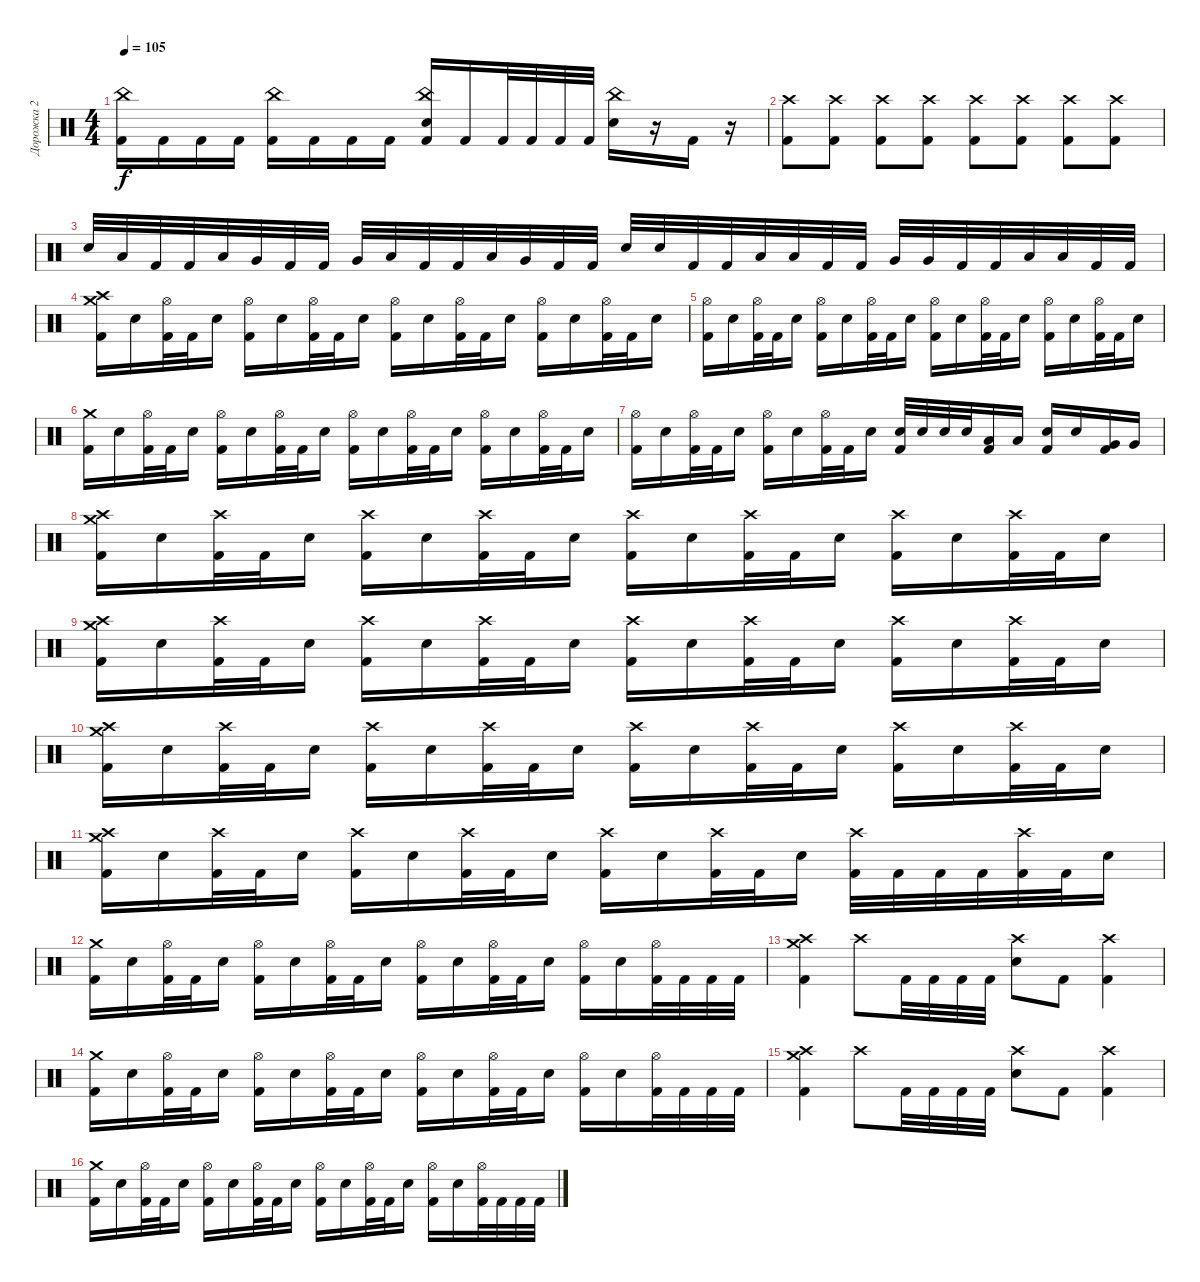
\track ("Дорожка 2" "Дорожка 2") {instrument percussion}
\staff {score}
\articulation defaults
\ts (4 4)
\tempo 105
\clef neutral
\ks c
("Kick (hit) 2" "China (hit)").16{dy f} "Kick (hit) 2".16 "Kick (hit) 2".16 "Kick (hit) 2".16 ("Kick (hit) 2" "China (hit)").16 "Kick (hit) 2".16 "Kick (hit) 2".16 "Kick (hit) 2".16 ("Kick (hit) 2" "Electric Snare (hit)" "China (hit)").16 "Kick (hit) 2".16 "Kick (hit) 2".32 "Kick (hit) 2".32 "Kick (hit) 2".32 "Kick (hit) 2".32 ("Electric Snare (hit)" "China (hit)").16 r.16 "Kick (hit) 2".16 r.16 |
("Kick (hit) 2" "Crash high (hit)").8 ("Kick (hit) 2" "Crash high (hit)").8 ("Kick (hit) 2" "Crash high (hit)").8 ("Kick (hit) 2" "Crash high (hit)").8 ("Kick (hit) 2" "Crash high (hit)").8 ("Kick (hit) 2" "Crash high (hit)").8 ("Kick (hit) 2" "Crash high (hit)").8 ("Kick (hit) 2" "Crash high (hit)").8 |
"Electric Snare (hit)".32 "Low Tom (hit)".32 "Kick (hit) 2".32 "Kick (hit) 2".32 "Low Tom (hit)".32 "Very Low Tom (hit)".32 "Kick (hit) 2".32 "Kick (hit) 2".32 "Very Low Tom (hit)".32 "Low Floor Tom (hit)".32 "Kick (hit) 2".32 "Kick (hit) 2".32 "Low Tom (hit)".32 "Very Low Tom (hit)".32 "Kick (hit) 2".32 "Kick (hit) 2".32 "Electric Snare (hit)".32 "Electric Snare (hit)".32 "Kick (hit) 2".32 "Kick (hit) 2".32 "Low Tom (hit)".32 "Low Tom (hit)".32 "Kick (hit) 2".32 "Kick (hit) 2".32 "Very Low Tom (hit)".32 "Very Low Tom (hit)".32 "Kick (hit) 2".32 "Kick (hit) 2".32 "Low Floor Tom (hit)".32 "Low Floor Tom (hit)".32 "Kick (hit) 2".32 "Kick (hit) 2".32 |
("Kick (hit) 2" "Crash high (hit)" "Crash medium (hit)").16 "Electric Snare (hit)".16 ("Kick (hit) 2" "Hi-Hat (open)").32 "Kick (hit) 2".32 "Electric Snare (hit)".16 ("Kick (hit) 2" "Hi-Hat (open)").16 "Electric Snare (hit)".16 ("Kick (hit) 2" "Hi-Hat (open)").32 "Kick (hit) 2".32 "Electric Snare (hit)".16 ("Kick (hit) 2" "Hi-Hat (open)").16 "Electric Snare (hit)".16 ("Kick (hit) 2" "Hi-Hat (open)").32 "Kick (hit) 2".32 "Electric Snare (hit)".16 ("Kick (hit) 2" "Hi-Hat (open)").16 "Electric Snare (hit)".16 ("Kick (hit) 2" "Hi-Hat (open)").32 "Kick (hit) 2".32 "Electric Snare (hit)".16 |
("Kick (hit) 2" "Hi-Hat (open)").16 "Electric Snare (hit)".16 ("Kick (hit) 2" "Hi-Hat (open)").32 "Kick (hit) 2".32 "Electric Snare (hit)".16 ("Kick (hit) 2" "Hi-Hat (open)").16 "Electric Snare (hit)".16 ("Kick (hit) 2" "Hi-Hat (open)").32 "Kick (hit) 2".32 "Electric Snare (hit)".16 ("Kick (hit) 2" "Hi-Hat (open)").16 "Electric Snare (hit)".16 ("Kick (hit) 2" "Hi-Hat (open)").32 "Kick (hit) 2".32 "Electric Snare (hit)".16 ("Kick (hit) 2" "Hi-Hat (open)").16 "Electric Snare (hit)".16 ("Kick (hit) 2" "Hi-Hat (open)").32 "Kick (hit) 2".32 "Electric Snare (hit)".16 |
("Kick (hit) 2" "Crash medium (hit)").16 "Electric Snare (hit)".16 ("Kick (hit) 2" "Hi-Hat (open)").32 "Kick (hit) 2".32 "Electric Snare (hit)".16 ("Kick (hit) 2" "Hi-Hat (open)").16 "Electric Snare (hit)".16 ("Kick (hit) 2" "Hi-Hat (open)").32 "Kick (hit) 2".32 "Electric Snare (hit)".16 ("Kick (hit) 2" "Hi-Hat (open)").16 "Electric Snare (hit)".16 ("Kick (hit) 2" "Hi-Hat (open)").32 "Kick (hit) 2".32 "Electric Snare (hit)".16 ("Kick (hit) 2" "Hi-Hat (open)").16 "Electric Snare (hit)".16 ("Kick (hit) 2" "Hi-Hat (open)").32 "Kick (hit) 2".32 "Electric Snare (hit)".16 |
("Kick (hit) 2" "Hi-Hat (open)").16 "Electric Snare (hit)".16 ("Kick (hit) 2" "Hi-Hat (open)").32 "Kick (hit) 2".32 "Electric Snare (hit)".16 ("Kick (hit) 2" "Hi-Hat (open)").16 "Electric Snare (hit)".16 ("Kick (hit) 2" "Hi-Hat (open)").32 "Kick (hit) 2".32 "Electric Snare (hit)".16 ("Electric Snare (hit)" "Kick (hit) 2").32 "Electric Snare (hit)".32 "Electric Snare (hit)".32 "Electric Snare (hit)".32 ("Low Tom (hit)" "Kick (hit) 2").16 "Low Tom (hit)".16 ("Electric Snare (hit)" "Kick (hit) 2").16 "Electric Snare (hit)".16 ("Very Low Tom (hit)" "Kick (hit) 2").16 "Very Low Tom (hit)".16 |
("Kick (hit) 2" "Crash high (hit)" "Crash medium (hit)").16 "Electric Snare (hit)".16 ("Kick (hit) 2" "Crash high (hit)").32 "Kick (hit) 2".32 "Electric Snare (hit)".16 ("Kick (hit) 2" "Crash high (hit)").16 "Electric Snare (hit)".16 ("Kick (hit) 2" "Crash high (hit)").32 "Kick (hit) 2".32 "Electric Snare (hit)".16 ("Kick (hit) 2" "Crash high (hit)").16 "Electric Snare (hit)".16 ("Kick (hit) 2" "Crash high (hit)").32 "Kick (hit) 2".32 "Electric Snare (hit)".16 ("Kick (hit) 2" "Crash high (hit)").16 "Electric Snare (hit)".16 ("Kick (hit) 2" "Crash high (hit)").32 "Kick (hit) 2".32 "Electric Snare (hit)".16 |
("Kick (hit) 2" "Crash high (hit)" "Crash medium (hit)").16 "Electric Snare (hit)".16 ("Kick (hit) 2" "Crash high (hit)").32 "Kick (hit) 2".32 "Electric Snare (hit)".16 ("Kick (hit) 2" "Crash high (hit)").16 "Electric Snare (hit)".16 ("Kick (hit) 2" "Crash high (hit)").32 "Kick (hit) 2".32 "Electric Snare (hit)".16 ("Kick (hit) 2" "Crash high (hit)").16 "Electric Snare (hit)".16 ("Kick (hit) 2" "Crash high (hit)").32 "Kick (hit) 2".32 "Electric Snare (hit)".16 ("Kick (hit) 2" "Crash high (hit)").16 "Electric Snare (hit)".16 ("Kick (hit) 2" "Crash high (hit)").32 "Kick (hit) 2".32 "Electric Snare (hit)".16 |
("Kick (hit) 2" "Crash high (hit)" "Crash medium (hit)").16 "Electric Snare (hit)".16 ("Kick (hit) 2" "Crash high (hit)").32 "Kick (hit) 2".32 "Electric Snare (hit)".16 ("Kick (hit) 2" "Crash high (hit)").16 "Electric Snare (hit)".16 ("Kick (hit) 2" "Crash high (hit)").32 "Kick (hit) 2".32 "Electric Snare (hit)".16 ("Kick (hit) 2" "Crash high (hit)").16 "Electric Snare (hit)".16 ("Kick (hit) 2" "Crash high (hit)").32 "Kick (hit) 2".32 "Electric Snare (hit)".16 ("Kick (hit) 2" "Crash high (hit)").16 "Electric Snare (hit)".16 ("Kick (hit) 2" "Crash high (hit)").32 "Kick (hit) 2".32 "Electric Snare (hit)".16 |
("Kick (hit) 2" "Crash high (hit)" "Crash medium (hit)").16 "Electric Snare (hit)".16 ("Kick (hit) 2" "Crash high (hit)").32 "Kick (hit) 2".32 "Electric Snare (hit)".16 ("Kick (hit) 2" "Crash high (hit)").16 "Electric Snare (hit)".16 ("Kick (hit) 2" "Crash high (hit)").32 "Kick (hit) 2".32 "Electric Snare (hit)".16 ("Kick (hit) 2" "Crash high (hit)").16 "Electric Snare (hit)".16 ("Kick (hit) 2" "Crash high (hit)").32 "Kick (hit) 2".32 "Electric Snare (hit)".16 ("Kick (hit) 2" "Crash high (hit)").32 "Kick (hit) 2".32 "Kick (hit) 2".32 "Kick (hit) 2".32 ("Kick (hit) 2" "Crash high (hit)").32 "Kick (hit) 2".32 "Electric Snare (hit)".16 |
("Kick (hit) 2" "Crash medium (hit)").16 "Electric Snare (hit)".16 ("Kick (hit) 2" "Hi-Hat (open)").32 "Kick (hit) 2".32 "Electric Snare (hit)".16 ("Kick (hit) 2" "Hi-Hat (open)").16 "Electric Snare (hit)".16 ("Kick (hit) 2" "Hi-Hat (open)").32 "Kick (hit) 2".32 "Electric Snare (hit)".16 ("Kick (hit) 2" "Hi-Hat (open)").16 "Electric Snare (hit)".16 ("Kick (hit) 2" "Hi-Hat (open)").32 "Kick (hit) 2".32 "Electric Snare (hit)".16 ("Kick (hit) 2" "Hi-Hat (open)").16 "Electric Snare (hit)".16 ("Kick (hit) 2" "Hi-Hat (open)").32 "Kick (hit) 2".32 "Kick (hit) 2".32 "Kick (hit) 2".32 |
("Kick (hit) 2" "Crash high (hit)" "Crash medium (hit)").4 "Crash high (hit)".8 "Kick (hit) 2".32 "Kick (hit) 2".32 "Kick (hit) 2".32 "Kick (hit) 2".32 ("Electric Snare (hit)" "Crash high (hit)").8 "Kick (hit) 2".8 ("Kick (hit) 2" "Crash high (hit)").4 |
("Kick (hit) 2" "Crash medium (hit)").16 "Electric Snare (hit)".16 ("Kick (hit) 2" "Hi-Hat (open)").32 "Kick (hit) 2".32 "Electric Snare (hit)".16 ("Kick (hit) 2" "Hi-Hat (open)").16 "Electric Snare (hit)".16 ("Kick (hit) 2" "Hi-Hat (open)").32 "Kick (hit) 2".32 "Electric Snare (hit)".16 ("Kick (hit) 2" "Hi-Hat (open)").16 "Electric Snare (hit)".16 ("Kick (hit) 2" "Hi-Hat (open)").32 "Kick (hit) 2".32 "Electric Snare (hit)".16 ("Kick (hit) 2" "Hi-Hat (open)").16 "Electric Snare (hit)".16 ("Kick (hit) 2" "Hi-Hat (open)").32 "Kick (hit) 2".32 "Kick (hit) 2".32 "Kick (hit) 2".32 |
("Kick (hit) 2" "Crash high (hit)" "Crash medium (hit)").4 "Crash high (hit)".8 "Kick (hit) 2".32 "Kick (hit) 2".32 "Kick (hit) 2".32 "Kick (hit) 2".32 ("Electric Snare (hit)" "Crash high (hit)").8 "Kick (hit) 2".8 ("Kick (hit) 2" "Crash high (hit)").4 |
("Kick (hit) 2" "Crash medium (hit)").16 "Electric Snare (hit)".16 ("Kick (hit) 2" "Hi-Hat (open)").32 "Kick (hit) 2".32 "Electric Snare (hit)".16 ("Kick (hit) 2" "Hi-Hat (open)").16 "Electric Snare (hit)".16 ("Kick (hit) 2" "Hi-Hat (open)").32 "Kick (hit) 2".32 "Electric Snare (hit)".16 ("Kick (hit) 2" "Hi-Hat (open)").16 "Electric Snare (hit)".16 ("Kick (hit) 2" "Hi-Hat (open)").32 "Kick (hit) 2".32 "Electric Snare (hit)".16 ("Kick (hit) 2" "Hi-Hat (open)").16 "Electric Snare (hit)".16 ("Kick (hit) 2" "Hi-Hat (open)").32 "Kick (hit) 2".32 "Kick (hit) 2".32 "Kick (hit) 2".32
